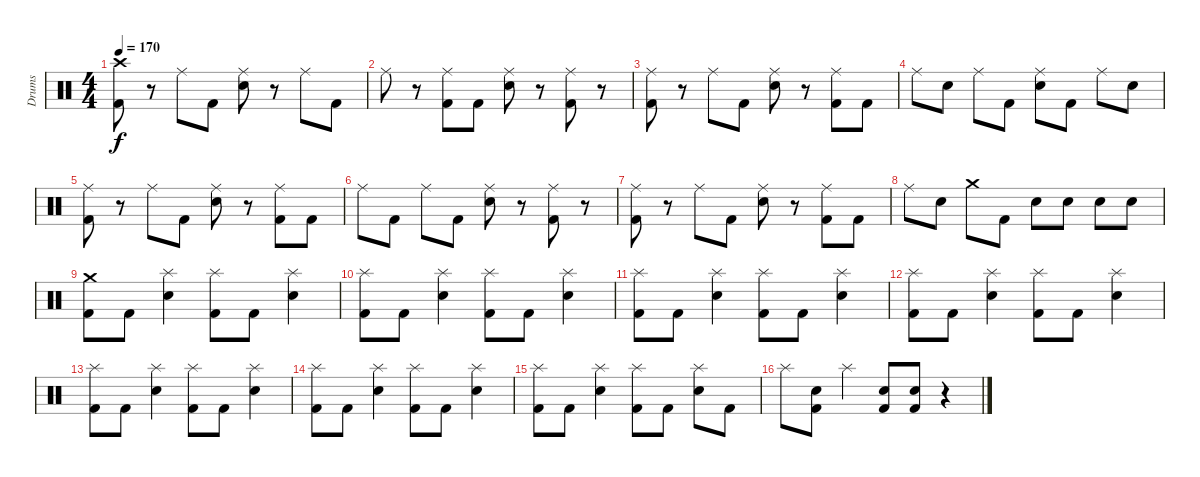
\track ("Drums" "Drums") {instrument percussion}
\staff {score}
\articulation defaults
\ts (4 4)
\tempo 170
\clef neutral
\ks c
("Crash high (hit)" "Kick (hit) 2").8{dy f} r.8 "Ride (middle)".8 "Kick (hit) 2".8 ("Ride (middle)" "Electric Snare (hit)").8 r.8 "Ride (middle)".8 "Kick (hit) 2".8 |
"Ride (middle)".8 r.8 ("Ride (middle)" "Kick (hit) 2").8 "Kick (hit) 2".8 ("Ride (middle)" "Electric Snare (hit)").8 r.8 ("Ride (middle)" "Kick (hit) 2").8 r.8 |
("Ride (middle)" "Kick (hit) 2").8 r.8 "Ride (middle)".8 "Kick (hit) 2".8 ("Ride (middle)" "Electric Snare (hit)").8 r.8 ("Ride (middle)" "Kick (hit) 2").8 "Kick (hit) 2".8 |
"Ride (middle)".8 "Electric Snare (hit)".8 "Ride (middle)".8 "Kick (hit) 2".8 ("Ride (middle)" "Electric Snare (hit)").8 "Kick (hit) 2".8 "Ride (middle)".8 "Electric Snare (hit)".8 |
("Ride (middle)" "Kick (hit) 2").8 r.8 "Ride (middle)".8 "Kick (hit) 2".8 ("Ride (middle)" "Electric Snare (hit)").8 r.8 ("Ride (middle)" "Kick (hit) 2").8 "Kick (hit) 2".8 |
"Ride (middle)".8 "Kick (hit) 2".8 "Ride (middle)".8 "Kick (hit) 2".8 ("Ride (middle)" "Electric Snare (hit)").8 r.8 ("Ride (middle)" "Kick (hit) 2").8 r.8 |
("Ride (middle)" "Kick (hit) 2").8 r.8 "Ride (middle)".8 "Kick (hit) 2".8 ("Ride (middle)" "Electric Snare (hit)").8 r.8 ("Ride (middle)" "Kick (hit) 2").8 "Kick (hit) 2".8 |
"Ride (middle)".8 "Electric Snare (hit)".8 "Crash medium (hit)".8 "Kick (hit) 2".8 "Electric Snare (hit)".8 "Electric Snare (hit)".8 "Electric Snare (hit)".8 "Electric Snare (hit)".8 |
("Crash medium (hit)" "Kick (hit) 2").8 "Kick (hit) 2".8 ("Splash (hit)" "Electric Snare (hit)").4 ("Splash (hit)" "Kick (hit) 2").8 "Kick (hit) 2".8 ("Splash (hit)" "Electric Snare (hit)").4 |
("Splash (hit)" "Kick (hit) 2").8 "Kick (hit) 2".8 ("Splash (hit)" "Electric Snare (hit)").4 ("Splash (hit)" "Kick (hit) 2").8 "Kick (hit) 2".8 ("Splash (hit)" "Electric Snare (hit)").4 |
("Splash (hit)" "Kick (hit) 2").8 "Kick (hit) 2".8 ("Splash (hit)" "Electric Snare (hit)").4 ("Splash (hit)" "Kick (hit) 2").8 "Kick (hit) 2".8 ("Splash (hit)" "Electric Snare (hit)").4 |
("Splash (hit)" "Kick (hit) 2").8 "Kick (hit) 2".8 ("Splash (hit)" "Electric Snare (hit)").4 ("Splash (hit)" "Kick (hit) 2").8 "Kick (hit) 2".8 ("Splash (hit)" "Electric Snare (hit)").4 |
("Splash (hit)" "Kick (hit) 2").8 "Kick (hit) 2".8 ("Splash (hit)" "Electric Snare (hit)").4 ("Splash (hit)" "Kick (hit) 2").8 "Kick (hit) 2".8 ("Splash (hit)" "Electric Snare (hit)").4 |
("Splash (hit)" "Kick (hit) 2").8 "Kick (hit) 2".8 ("Splash (hit)" "Electric Snare (hit)").4 ("Splash (hit)" "Kick (hit) 2").8 "Kick (hit) 2".8 ("Splash (hit)" "Electric Snare (hit)").4 |
("Splash (hit)" "Kick (hit) 2").8 "Kick (hit) 2".8 ("Splash (hit)" "Electric Snare (hit)").4 ("Splash (hit)" "Kick (hit) 2").8 "Kick (hit) 2".8 ("Splash (hit)" "Electric Snare (hit)").8 "Kick (hit) 2".8 |
"Splash (hit)".8 ("Electric Snare (hit)" "Kick (hit) 2").8 "Splash (hit)".4 ("Electric Snare (hit)" "Kick (hit) 2").8 ("Electric Snare (hit)" "Kick (hit) 2").8 r.4
